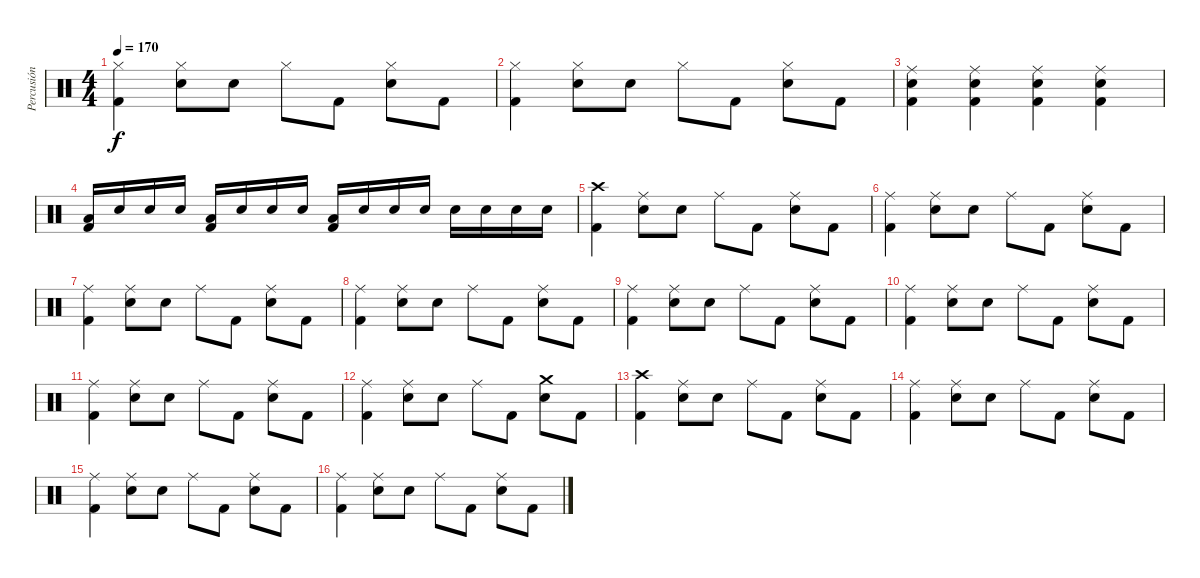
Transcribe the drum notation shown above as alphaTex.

\track ("Percusión" "Percusión") {instrument percussion}
\staff {score}
\articulation defaults
\ts (4 4)
\tempo 170
\clef neutral
\ks c
("Hi-Hat (closed)" "Kick (hit) 2").4{dy f} ("Hi-Hat (closed)" "Electric Snare (hit)").8 "Electric Snare (hit)".8 "Hi-Hat (closed)".8 "Kick (hit) 2".8 ("Hi-Hat (closed)" "Electric Snare (hit)").8 "Kick (hit) 2".8 |
("Hi-Hat (closed)" "Kick (hit) 2").4 ("Hi-Hat (closed)" "Electric Snare (hit)").8 "Electric Snare (hit)".8 "Hi-Hat (closed)".8 "Kick (hit) 2".8 ("Hi-Hat (closed)" "Electric Snare (hit)").8 "Kick (hit) 2".8 |
("Ride (middle)" "Electric Snare (hit)" "Kick (hit) 2").4 ("Ride (middle)" "Electric Snare (hit)" "Kick (hit) 2").4 ("Ride (middle)" "Electric Snare (hit)" "Kick (hit) 2").4 ("Ride (middle)" "Electric Snare (hit)" "Kick (hit) 2").4 |
("Low Tom (hit)" "Kick (hit) 2").16 "Electric Snare (hit)".16 "Electric Snare (hit)".16 "Electric Snare (hit)".16 ("Low Tom (hit)" "Kick (hit) 2").16 "Electric Snare (hit)".16 "Electric Snare (hit)".16 "Electric Snare (hit)".16 ("Low Tom (hit)" "Kick (hit) 2").16 "Electric Snare (hit)".16 "Electric Snare (hit)".16 "Electric Snare (hit)".16 "Electric Snare (hit)".16 "Electric Snare (hit)".16 "Electric Snare (hit)".16 "Electric Snare (hit)".16 |
("Crash high (hit)" "Kick (hit) 2").4 ("Ride (middle)" "Electric Snare (hit)").8 "Electric Snare (hit)".8 "Ride (middle)".8 "Kick (hit) 2".8 ("Ride (middle)" "Electric Snare (hit)").8 "Kick (hit) 2".8 |
("Ride (middle)" "Kick (hit) 2").4 ("Ride (middle)" "Electric Snare (hit)").8 "Electric Snare (hit)".8 "Ride (middle)".8 "Kick (hit) 2".8 ("Ride (middle)" "Electric Snare (hit)").8 "Kick (hit) 2".8 |
("Ride (middle)" "Kick (hit) 2").4 ("Ride (middle)" "Electric Snare (hit)").8 "Electric Snare (hit)".8 "Ride (middle)".8 "Kick (hit) 2".8 ("Ride (middle)" "Electric Snare (hit)").8 "Kick (hit) 2".8 |
("Ride (middle)" "Kick (hit) 2").4 ("Ride (middle)" "Electric Snare (hit)").8 "Electric Snare (hit)".8 "Ride (middle)".8 "Kick (hit) 2".8 ("Ride (middle)" "Electric Snare (hit)").8 "Kick (hit) 2".8 |
("Ride (middle)" "Kick (hit) 2").4 ("Ride (middle)" "Electric Snare (hit)").8 "Electric Snare (hit)".8 "Ride (middle)".8 "Kick (hit) 2".8 ("Ride (middle)" "Electric Snare (hit)").8 "Kick (hit) 2".8 |
("Ride (middle)" "Kick (hit) 2").4 ("Ride (middle)" "Electric Snare (hit)").8 "Electric Snare (hit)".8 "Ride (middle)".8 "Kick (hit) 2".8 ("Ride (middle)" "Electric Snare (hit)").8 "Kick (hit) 2".8 |
("Ride (middle)" "Kick (hit) 2").4 ("Ride (middle)" "Electric Snare (hit)").8 "Electric Snare (hit)".8 "Ride (middle)".8 "Kick (hit) 2".8 ("Ride (middle)" "Electric Snare (hit)").8 "Kick (hit) 2".8 |
("Ride (middle)" "Kick (hit) 2").4 ("Ride (middle)" "Electric Snare (hit)").8 "Electric Snare (hit)".8 "Ride (middle)".8 "Kick (hit) 2".8 ("Crash medium (hit)" "Electric Snare (hit)").8 "Kick (hit) 2".8 |
("Crash high (hit)" "Kick (hit) 2").4 ("Ride (middle)" "Electric Snare (hit)").8 "Electric Snare (hit)".8 "Ride (middle)".8 "Kick (hit) 2".8 ("Ride (middle)" "Electric Snare (hit)").8 "Kick (hit) 2".8 |
("Ride (middle)" "Kick (hit) 2").4 ("Ride (middle)" "Electric Snare (hit)").8 "Electric Snare (hit)".8 "Ride (middle)".8 "Kick (hit) 2".8 ("Ride (middle)" "Electric Snare (hit)").8 "Kick (hit) 2".8 |
("Ride (middle)" "Kick (hit) 2").4 ("Ride (middle)" "Electric Snare (hit)").8 "Electric Snare (hit)".8 "Ride (middle)".8 "Kick (hit) 2".8 ("Ride (middle)" "Electric Snare (hit)").8 "Kick (hit) 2".8 |
("Ride (middle)" "Kick (hit) 2").4 ("Ride (middle)" "Electric Snare (hit)").8 "Electric Snare (hit)".8 "Ride (middle)".8 "Kick (hit) 2".8 ("Ride (middle)" "Electric Snare (hit)").8 "Kick (hit) 2".8
